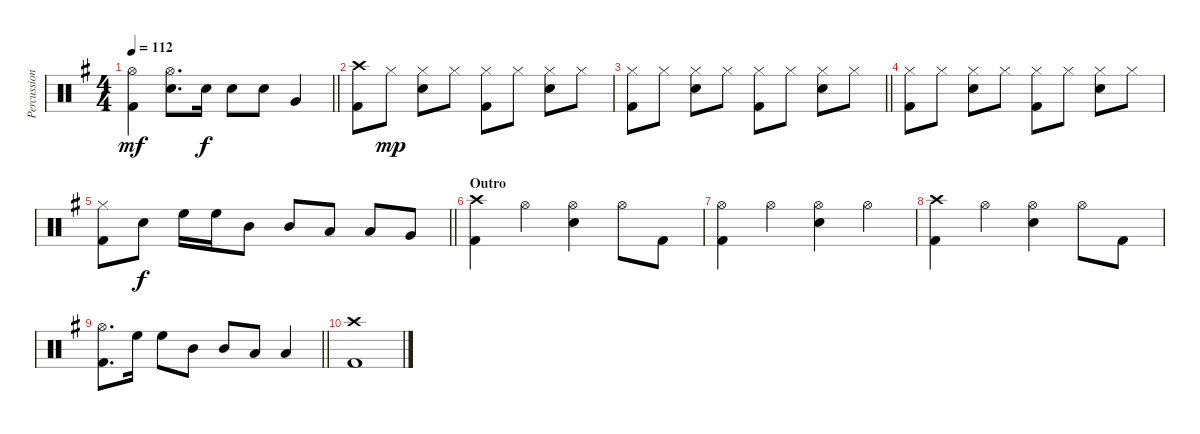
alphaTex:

\track ("Percussion" "Percussion") {instrument percussion}
\staff {score}
\articulation defaults
\ts (4 4)
\tempo 112
\clef neutral
\barLineRight lightlight
\ks g
("Hi-Hat (open)" "Kick (hit) 2").4{dy mf} ("Hi-Hat (open)" "Snare (hit) 2").8{d} "Snare (hit) 2".16{dy f} "Snare (hit) 2".8 "Snare (hit) 2".8 "Very Low Tom (hit)".4 |
("Crash high (hit)" "Kick (hit) 2").8 "Hi-Hat (closed)".8{dy mp} ("Hi-Hat (closed)" "Snare (hit) 2").8 "Hi-Hat (closed)".8 ("Hi-Hat (closed)" "Kick (hit) 2").8 "Hi-Hat (closed)".8 ("Hi-Hat (closed)" "Snare (hit) 2").8 "Hi-Hat (closed)".8 |
\barLineRight lightlight
("Hi-Hat (closed)" "Kick (hit) 2").8 "Hi-Hat (closed)".8 ("Hi-Hat (closed)" "Snare (hit) 2").8 "Hi-Hat (closed)".8 ("Hi-Hat (closed)" "Kick (hit) 2").8 "Hi-Hat (closed)".8 ("Hi-Hat (closed)" "Snare (hit) 2").8 "Hi-Hat (closed)".8 |
("Hi-Hat (closed)" "Kick (hit) 2").8 "Hi-Hat (closed)".8 ("Hi-Hat (closed)" "Snare (hit) 2").8 "Hi-Hat (closed)".8 ("Hi-Hat (closed)" "Kick (hit) 2").8 "Hi-Hat (closed)".8 ("Hi-Hat (closed)" "Snare (hit) 2").8 "Hi-Hat (closed)".8 |
\barLineRight lightlight
("Hi-Hat (closed)" "Kick (hit) 2").8 "Snare (hit) 2".8{dy f} "High Floor Tom (hit)".16 "High Floor Tom (hit)".16 "Mid Tom (hit)".8 "Mid Tom (hit)".8 "Low Tom (hit)".8 "Low Tom (hit)".8 "Very Low Tom (hit)".8 |
\section ("" "Outro")
("Crash high (hit)" "Kick (hit) 2").4 "Hi-Hat (open)".4 ("Hi-Hat (open)" "Snare (hit) 2").4 "Hi-Hat (open)".8 "Kick (hit) 2".8 |
("Hi-Hat (open)" "Kick (hit) 2").4 "Hi-Hat (open)".4 ("Hi-Hat (open)" "Snare (hit) 2").4 "Hi-Hat (open)".4 |
("Crash high (hit)" "Kick (hit) 2").4 "Hi-Hat (open)".4 ("Hi-Hat (open)" "Snare (hit) 2").4 "Hi-Hat (open)".8 "Kick (hit) 2".8 |
\barLineRight lightlight
("Hi-Hat (open)" "Kick (hit) 2").8{d} "High Floor Tom (hit)".16 "High Floor Tom (hit)".8 "Mid Tom (hit)".8 "Mid Tom (hit)".8 "Low Tom (hit)".8 "Low Tom (hit)".4 |
("Crash high (hit)" "Kick (hit) 2").1
